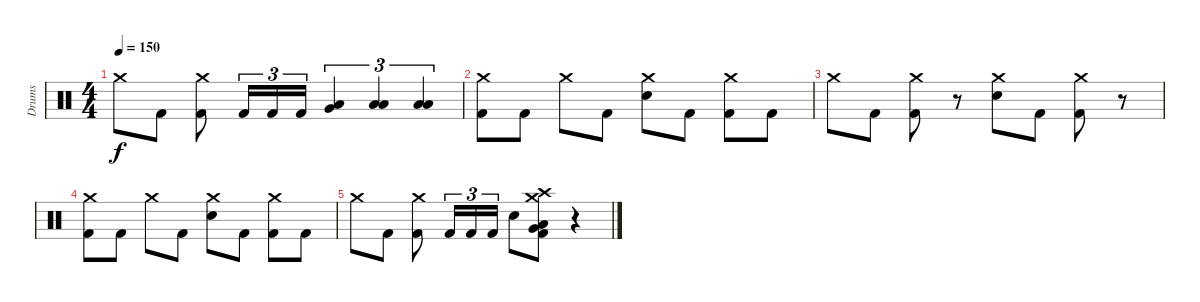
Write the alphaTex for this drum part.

\track ("Drums" "Drums") {instrument percussion}
\staff {score}
\articulation defaults
\ts (4 4)
\tempo 150
\clef neutral
\ks c "Crash medium (hit)".8{dy f} "Kick (hit) 2".8
("Crash medium (hit)" "Kick (hit) 2").8 "Kick (hit) 2".16{tu (3 2)} "Kick (hit) 2".16{tu (3 2)} "Kick (hit) 2".16{tu (3 2)} ("Low Tom (hit)" "Very Low Tom (hit)").4{tu (3 2)} ("Low Tom (hit)" "Low Floor Tom (hit)").4{tu (3 2)} ("Low Tom (hit)" "Low Floor Tom (hit)").4{tu (3 2)} |
("Crash medium (hit)" "Kick (hit) 2").8 "Kick (hit) 2".8 "Crash medium (hit)".8 "Kick (hit) 2".8 ("Crash medium (hit)" "Electric Snare (hit)").8 "Kick (hit) 2".8 ("Crash medium (hit)" "Kick (hit) 2").8 "Kick (hit) 2".8 |
"Crash medium (hit)".8 "Kick (hit) 2".8 ("Crash medium (hit)" "Kick (hit) 2").8 r.8 ("Crash medium (hit)" "Electric Snare (hit)").8 "Kick (hit) 2".8 ("Crash medium (hit)" "Kick (hit) 2").8 r.8 |
("Crash medium (hit)" "Kick (hit) 2").8 "Kick (hit) 2".8 "Crash medium (hit)".8 "Kick (hit) 2".8 ("Crash medium (hit)" "Electric Snare (hit)").8 "Kick (hit) 2".8 ("Crash medium (hit)" "Kick (hit) 2").8 "Kick (hit) 2".8 |
"Crash medium (hit)".8 "Kick (hit) 2".8 ("Crash medium (hit)" "Kick (hit) 2").8 "Kick (hit) 2".16{tu (3 2)} "Kick (hit) 2".16{tu (3 2)} "Kick (hit) 2".16{tu (3 2)} "Electric Snare (hit)".8 ("Crash high (hit)" "Crash medium (hit)" "Very Low Tom (hit)" "Low Floor Tom (hit)" "Kick (hit) 2").8 r.4
